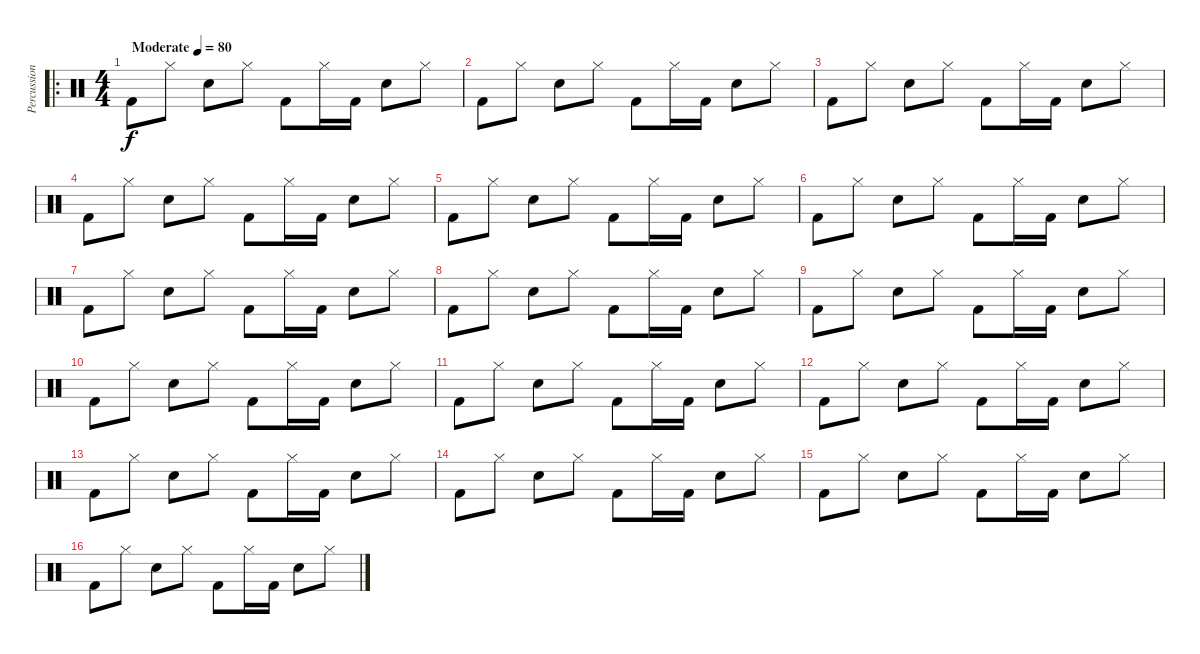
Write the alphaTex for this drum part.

\track ("Percussion" "Percussion") {instrument percussion}
\staff {score}
\articulation defaults
\ro
\ts (4 4)
\tempo (80 "Moderate")
\clef neutral
\ks c "Kick (hit) 2".8{dy f} "Hi-Hat (closed)".8 "Snare (hit) 2".8 "Hi-Hat (closed)".8 "Kick (hit) 2".8 "Hi-Hat (closed)".16 "Kick (hit) 2".16 "Snare (hit) 2".8 "Hi-Hat (closed)".8
|
"Kick (hit) 2".8 "Hi-Hat (closed)".8 "Snare (hit) 2".8 "Hi-Hat (closed)".8 "Kick (hit) 2".8 "Hi-Hat (closed)".16 "Kick (hit) 2".16 "Snare (hit) 2".8 "Hi-Hat (closed)".8 |
"Kick (hit) 2".8 "Hi-Hat (closed)".8 "Snare (hit) 2".8 "Hi-Hat (closed)".8 "Kick (hit) 2".8 "Hi-Hat (closed)".16 "Kick (hit) 2".16 "Snare (hit) 2".8 "Hi-Hat (closed)".8 |
"Kick (hit) 2".8 "Hi-Hat (closed)".8 "Snare (hit) 2".8 "Hi-Hat (closed)".8 "Kick (hit) 2".8 "Hi-Hat (closed)".16 "Kick (hit) 2".16 "Snare (hit) 2".8 "Hi-Hat (closed)".8 |
"Kick (hit) 2".8 "Hi-Hat (closed)".8 "Snare (hit) 2".8 "Hi-Hat (closed)".8 "Kick (hit) 2".8 "Hi-Hat (closed)".16 "Kick (hit) 2".16 "Snare (hit) 2".8 "Hi-Hat (closed)".8 |
"Kick (hit) 2".8 "Hi-Hat (closed)".8 "Snare (hit) 2".8 "Hi-Hat (closed)".8 "Kick (hit) 2".8 "Hi-Hat (closed)".16 "Kick (hit) 2".16 "Snare (hit) 2".8 "Hi-Hat (closed)".8 |
"Kick (hit) 2".8 "Hi-Hat (closed)".8 "Snare (hit) 2".8 "Hi-Hat (closed)".8 "Kick (hit) 2".8 "Hi-Hat (closed)".16 "Kick (hit) 2".16 "Snare (hit) 2".8 "Hi-Hat (closed)".8 |
"Kick (hit) 2".8 "Hi-Hat (closed)".8 "Snare (hit) 2".8 "Hi-Hat (closed)".8 "Kick (hit) 2".8 "Hi-Hat (closed)".16 "Kick (hit) 2".16 "Snare (hit) 2".8 "Hi-Hat (closed)".8 |
"Kick (hit) 2".8 "Hi-Hat (closed)".8 "Snare (hit) 2".8 "Hi-Hat (closed)".8 "Kick (hit) 2".8 "Hi-Hat (closed)".16 "Kick (hit) 2".16 "Snare (hit) 2".8 "Hi-Hat (closed)".8 |
"Kick (hit) 2".8 "Hi-Hat (closed)".8 "Snare (hit) 2".8 "Hi-Hat (closed)".8 "Kick (hit) 2".8 "Hi-Hat (closed)".16 "Kick (hit) 2".16 "Snare (hit) 2".8 "Hi-Hat (closed)".8 |
"Kick (hit) 2".8 "Hi-Hat (closed)".8 "Snare (hit) 2".8 "Hi-Hat (closed)".8 "Kick (hit) 2".8 "Hi-Hat (closed)".16 "Kick (hit) 2".16 "Snare (hit) 2".8 "Hi-Hat (closed)".8 |
"Kick (hit) 2".8 "Hi-Hat (closed)".8 "Snare (hit) 2".8 "Hi-Hat (closed)".8 "Kick (hit) 2".8 "Hi-Hat (closed)".16 "Kick (hit) 2".16 "Snare (hit) 2".8 "Hi-Hat (closed)".8 |
"Kick (hit) 2".8 "Hi-Hat (closed)".8 "Snare (hit) 2".8 "Hi-Hat (closed)".8 "Kick (hit) 2".8 "Hi-Hat (closed)".16 "Kick (hit) 2".16 "Snare (hit) 2".8 "Hi-Hat (closed)".8 |
"Kick (hit) 2".8 "Hi-Hat (closed)".8 "Snare (hit) 2".8 "Hi-Hat (closed)".8 "Kick (hit) 2".8 "Hi-Hat (closed)".16 "Kick (hit) 2".16 "Snare (hit) 2".8 "Hi-Hat (closed)".8 |
"Kick (hit) 2".8 "Hi-Hat (closed)".8 "Snare (hit) 2".8 "Hi-Hat (closed)".8 "Kick (hit) 2".8 "Hi-Hat (closed)".16 "Kick (hit) 2".16 "Snare (hit) 2".8 "Hi-Hat (closed)".8 |
"Kick (hit) 2".8 "Hi-Hat (closed)".8 "Snare (hit) 2".8 "Hi-Hat (closed)".8 "Kick (hit) 2".8 "Hi-Hat (closed)".16 "Kick (hit) 2".16 "Snare (hit) 2".8 "Hi-Hat (closed)".8
